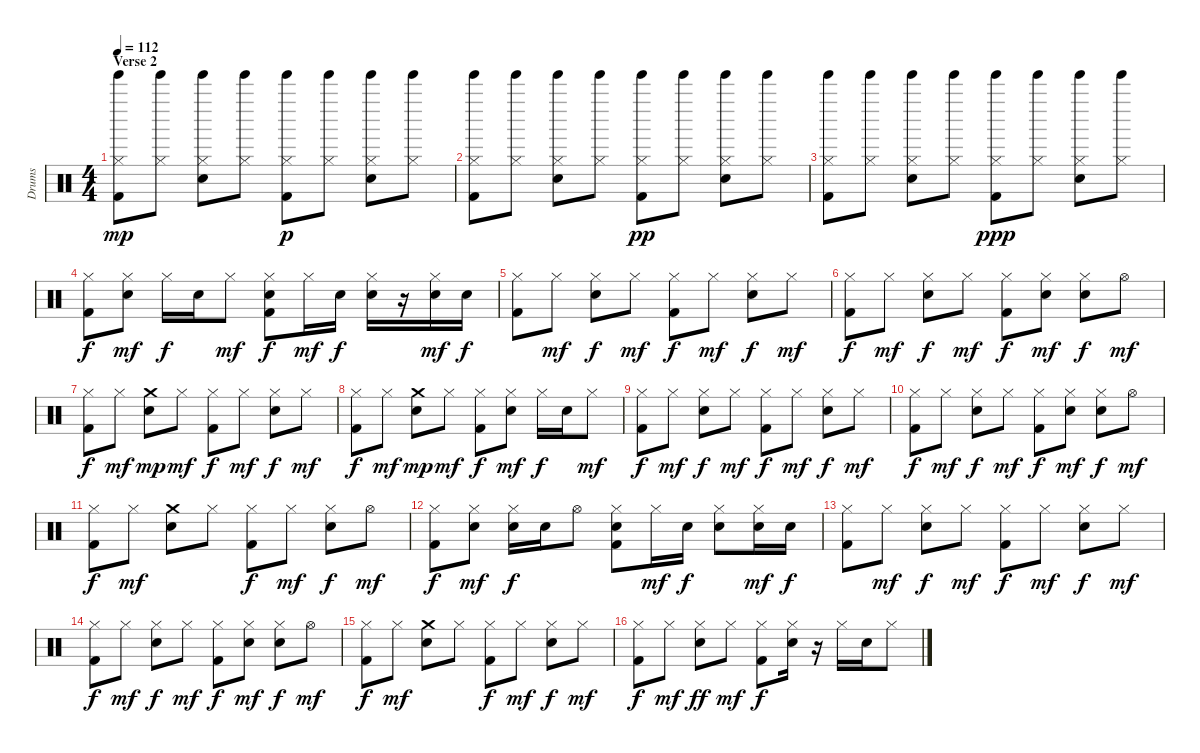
\track ("Drums" "Drums") {instrument percussion}
\staff {score}
\articulation defaults
\ts (4 4)
\section ("" "Verse 2")
\tempo 112
\clef neutral
\ks c
("Hi-Hat (closed)" "Tinkle Bell (hit)" "Kick (hit) 2").8{dy mp} ("Hi-Hat (closed)" "Tinkle Bell (hit)").8 ("Hi-Hat (closed)" "Tinkle Bell (hit)" "Snare (hit) 2").8 ("Hi-Hat (closed)" "Tinkle Bell (hit)").8 ("Hi-Hat (closed)" "Tinkle Bell (hit)" "Kick (hit) 2").8{dy p} ("Hi-Hat (closed)" "Tinkle Bell (hit)").8 ("Hi-Hat (closed)" "Tinkle Bell (hit)" "Snare (hit) 2").8 ("Hi-Hat (closed)" "Tinkle Bell (hit)").8 |
("Hi-Hat (closed)" "Tinkle Bell (hit)" "Kick (hit) 2").8 ("Hi-Hat (closed)" "Tinkle Bell (hit)").8 ("Hi-Hat (closed)" "Tinkle Bell (hit)" "Snare (hit) 2").8 ("Hi-Hat (closed)" "Tinkle Bell (hit)").8 ("Hi-Hat (closed)" "Tinkle Bell (hit)" "Kick (hit) 2").8{dy pp} ("Hi-Hat (closed)" "Tinkle Bell (hit)").8 ("Hi-Hat (closed)" "Tinkle Bell (hit)" "Snare (hit) 2").8 ("Hi-Hat (closed)" "Tinkle Bell (hit)").8 |
("Hi-Hat (closed)" "Tinkle Bell (hit)" "Kick (hit) 2").8 ("Hi-Hat (closed)" "Tinkle Bell (hit)").8 ("Hi-Hat (closed)" "Tinkle Bell (hit)" "Snare (hit) 2").8 ("Hi-Hat (closed)" "Tinkle Bell (hit)").8 ("Hi-Hat (closed)" "Tinkle Bell (hit)" "Kick (hit) 2").8{dy ppp} ("Hi-Hat (closed)" "Tinkle Bell (hit)").8 ("Hi-Hat (closed)" "Tinkle Bell (hit)" "Snare (hit) 2").8 ("Hi-Hat (closed)" "Tinkle Bell (hit)").8 |
("Hi-Hat (closed)" "Kick (hit) 2").8{dy f} ("Hi-Hat (closed)" "Snare (hit) 2").8{dy mf} "Hi-Hat (closed)".16{dy f} "Snare (hit) 2".16 "Hi-Hat (closed)".8{dy mf} ("Hi-Hat (closed)" "Snare (hit) 2" "Kick (hit) 2").8{dy f} "Hi-Hat (closed)".16{dy mf} "Snare (hit) 2".16{dy f} ("Hi-Hat (closed)" "Snare (hit) 2").16 r.16 ("Hi-Hat (closed)" "Snare (hit) 2").16{dy mf} "Snare (hit) 2".16{dy f} |
("Hi-Hat (closed)" "Kick (hit) 2").8 "Hi-Hat (closed)".8{dy mf} ("Hi-Hat (closed)" "Snare (hit) 2").8{dy f} "Hi-Hat (closed)".8{dy mf} ("Hi-Hat (closed)" "Kick (hit) 2").8{dy f} "Hi-Hat (closed)".8{dy mf} ("Hi-Hat (closed)" "Snare (hit) 2").8{dy f} "Hi-Hat (closed)".8{dy mf} |
("Hi-Hat (closed)" "Kick (hit) 2").8{dy f} "Hi-Hat (closed)".8{dy mf} ("Hi-Hat (closed)" "Snare (hit) 2").8{dy f} "Hi-Hat (closed)".8{dy mf} ("Hi-Hat (closed)" "Kick (hit) 2").8{dy f} ("Hi-Hat (closed)" "Snare (hit) 2").8{dy mf} ("Hi-Hat (closed)" "Snare (hit) 2").8{dy f} "Hi-Hat (open)".8{dy mf} |
("Hi-Hat (closed)" "Kick (hit) 2").8{dy f} "Hi-Hat (closed)".8{dy mf} ("Crash medium (hit)" "Snare (hit) 2").8{dy mp} "Hi-Hat (closed)".8{dy mf} ("Hi-Hat (closed)" "Kick (hit) 2").8{dy f} "Hi-Hat (closed)".8{dy mf} ("Hi-Hat (closed)" "Snare (hit) 2").8{dy f} "Hi-Hat (closed)".8{dy mf} |
("Hi-Hat (closed)" "Kick (hit) 2").8{dy f} "Hi-Hat (closed)".8{dy mf} ("Crash medium (hit)" "Snare (hit) 2").8{dy mp} "Hi-Hat (closed)".8{dy mf} ("Hi-Hat (closed)" "Kick (hit) 2").8{dy f} ("Hi-Hat (closed)" "Snare (hit) 2").8{dy mf} "Hi-Hat (closed)".16{dy f} "Snare (hit) 2".16 "Hi-Hat (closed)".8{dy mf} |
("Hi-Hat (closed)" "Kick (hit) 2").8{dy f} "Hi-Hat (closed)".8{dy mf} ("Hi-Hat (closed)" "Snare (hit) 2").8{dy f} "Hi-Hat (closed)".8{dy mf} ("Hi-Hat (closed)" "Kick (hit) 2").8{dy f} "Hi-Hat (closed)".8{dy mf} ("Hi-Hat (closed)" "Snare (hit) 2").8{dy f} "Hi-Hat (closed)".8{dy mf} |
("Hi-Hat (closed)" "Kick (hit) 2").8{dy f} "Hi-Hat (closed)".8{dy mf} ("Hi-Hat (closed)" "Snare (hit) 2").8{dy f} "Hi-Hat (closed)".8{dy mf} ("Hi-Hat (closed)" "Kick (hit) 2").8{dy f} ("Hi-Hat (closed)" "Snare (hit) 2").8{dy mf} ("Hi-Hat (closed)" "Snare (hit) 2").8{dy f} "Hi-Hat (open)".8{dy mf} |
("Hi-Hat (closed)" "Kick (hit) 2").8{dy f} "Hi-Hat (closed)".8{dy mf} ("Crash medium (hit)" "Snare (hit) 2").8 "Hi-Hat (closed)".8 ("Hi-Hat (closed)" "Kick (hit) 2").8{dy f} "Hi-Hat (closed)".8{dy mf} ("Hi-Hat (closed)" "Snare (hit) 2").8{dy f} "Hi-Hat (open)".8{dy mf} |
("Hi-Hat (closed)" "Kick (hit) 2").8{dy f} ("Hi-Hat (closed)" "Snare (hit) 2").8{dy mf} ("Hi-Hat (closed)" "Snare (hit) 2").16{dy f} "Snare (hit) 2".16 "Hi-Hat (open)".8 ("Hi-Hat (closed)" "Snare (hit) 2" "Kick (hit) 2").8 "Hi-Hat (closed)".16{dy mf} "Snare (hit) 2".16{dy f} ("Hi-Hat (closed)" "Snare (hit) 2").8 ("Hi-Hat (closed)" "Snare (hit) 2").16{dy mf} "Snare (hit) 2".16{dy f} |
("Hi-Hat (closed)" "Kick (hit) 2").8 "Hi-Hat (closed)".8{dy mf} ("Hi-Hat (closed)" "Snare (hit) 2").8{dy f} "Hi-Hat (closed)".8{dy mf} ("Hi-Hat (closed)" "Kick (hit) 2").8{dy f} "Hi-Hat (closed)".8{dy mf} ("Hi-Hat (closed)" "Snare (hit) 2").8{dy f} "Hi-Hat (closed)".8{dy mf} |
("Hi-Hat (closed)" "Kick (hit) 2").8{dy f} "Hi-Hat (closed)".8{dy mf} ("Hi-Hat (closed)" "Snare (hit) 2").8{dy f} "Hi-Hat (closed)".8{dy mf} ("Hi-Hat (closed)" "Kick (hit) 2").8{dy f} ("Hi-Hat (closed)" "Snare (hit) 2").8{dy mf} ("Hi-Hat (closed)" "Snare (hit) 2").8{dy f} "Hi-Hat (open)".8{dy mf} |
("Hi-Hat (closed)" "Kick (hit) 2").8{dy f} "Hi-Hat (closed)".8{dy mf} ("Crash medium (hit)" "Snare (hit) 2").8 "Hi-Hat (closed)".8 ("Hi-Hat (closed)" "Kick (hit) 2").8{dy f} "Hi-Hat (closed)".8{dy mf} ("Hi-Hat (closed)" "Snare (hit) 2").8{dy f} "Hi-Hat (closed)".8{dy mf} |
("Hi-Hat (closed)" "Kick (hit) 2").8{dy f} "Hi-Hat (closed)".8{dy mf} ("Hi-Hat (closed)" "Snare (hit) 2").8{dy ff} "Hi-Hat (closed)".8{dy mf} ("Hi-Hat (closed)" "Kick (hit) 2").8{dy f} ("Hi-Hat (closed)" "Snare (hit) 2").16 r.16 "Hi-Hat (closed)".16 "Snare (hit) 2".16 "Hi-Hat (closed)".8
